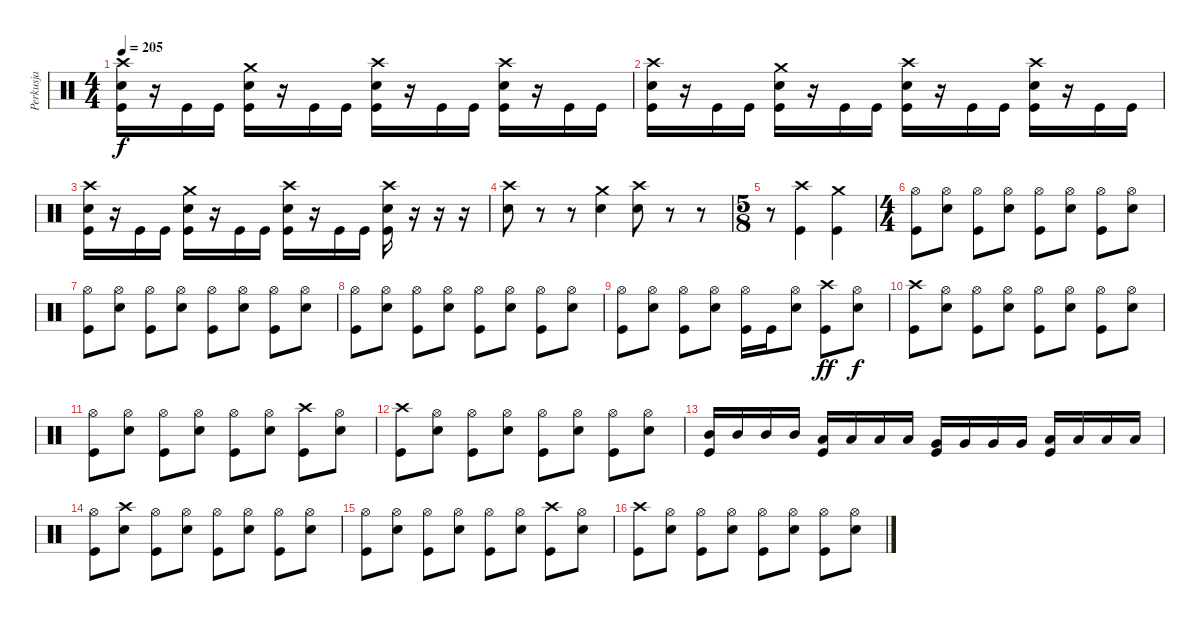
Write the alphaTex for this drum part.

\track ("Perkusja" "Perkusja") {instrument percussion}
\staff {score}
\articulation defaults
\ts (4 4)
\tempo 205
\clef neutral
\ks c
("Crash high (hit)" "Snare (hit) 2" "Kick (hit)").16{dy f} r.16 "Kick (hit)".16 "Kick (hit)".16 ("Crash medium (hit)" "Snare (hit) 2" "Kick (hit)").16 r.16 "Kick (hit)".16 "Kick (hit)".16 ("Crash high (hit)" "Snare (hit) 2" "Kick (hit)").16 r.16 "Kick (hit)".16 "Kick (hit)".16 ("Crash high (hit)" "Snare (hit) 2" "Kick (hit)").16 r.16 "Kick (hit)".16 "Kick (hit)".16 |
("Crash high (hit)" "Snare (hit) 2" "Kick (hit)").16 r.16 "Kick (hit)".16 "Kick (hit)".16 ("Crash medium (hit)" "Snare (hit) 2" "Kick (hit)").16 r.16 "Kick (hit)".16 "Kick (hit)".16 ("Crash high (hit)" "Snare (hit) 2" "Kick (hit)").16 r.16 "Kick (hit)".16 "Kick (hit)".16 ("Crash high (hit)" "Snare (hit) 2" "Kick (hit)").16 r.16 "Kick (hit)".16 "Kick (hit)".16 |
("Crash high (hit)" "Snare (hit) 2" "Kick (hit)").16 r.16 "Kick (hit)".16 "Kick (hit)".16 ("Crash medium (hit)" "Snare (hit) 2" "Kick (hit)").16 r.16 "Kick (hit)".16 "Kick (hit)".16 ("Crash high (hit)" "Snare (hit) 2" "Kick (hit)").16 r.16 "Kick (hit)".16 "Kick (hit)".16 ("Crash high (hit)" "Snare (hit) 2" "Kick (hit)").16 r.16 r.16 r.16 |
("Crash high (hit)" "Snare (hit) 2").8 r.8 r.8 ("Crash medium (hit)" "Snare (hit) 2").4 ("Crash high (hit)" "Snare (hit) 2").8 r.8 r.8 |
\ts (5 8)
r.8 ("Crash high (hit)" "Kick (hit)").4 ("Crash medium (hit)" "Kick (hit)").4 |
\ts (4 4)
("Hi-Hat (open)" "Kick (hit)").8 ("Hi-Hat (open)" "Snare (hit) 2").8 ("Hi-Hat (open)" "Kick (hit)").8 ("Hi-Hat (open)" "Snare (hit) 2").8 ("Hi-Hat (open)" "Kick (hit)").8 ("Hi-Hat (open)" "Snare (hit) 2").8 ("Hi-Hat (open)" "Kick (hit)").8 ("Hi-Hat (open)" "Snare (hit) 2").8 |
("Hi-Hat (open)" "Kick (hit)").8 ("Hi-Hat (open)" "Snare (hit) 2").8 ("Hi-Hat (open)" "Kick (hit)").8 ("Hi-Hat (open)" "Snare (hit) 2").8 ("Hi-Hat (open)" "Kick (hit)").8 ("Hi-Hat (open)" "Snare (hit) 2").8 ("Hi-Hat (open)" "Kick (hit)").8 ("Hi-Hat (open)" "Snare (hit) 2").8 |
("Hi-Hat (open)" "Kick (hit)").8 ("Hi-Hat (open)" "Snare (hit) 2").8 ("Hi-Hat (open)" "Kick (hit)").8 ("Hi-Hat (open)" "Snare (hit) 2").8 ("Hi-Hat (open)" "Kick (hit)").8 ("Hi-Hat (open)" "Snare (hit) 2").8 ("Hi-Hat (open)" "Kick (hit)").8 ("Hi-Hat (open)" "Snare (hit) 2").8 |
("Hi-Hat (open)" "Kick (hit)").8 ("Hi-Hat (open)" "Snare (hit) 2").8 ("Hi-Hat (open)" "Kick (hit)").8 ("Hi-Hat (open)" "Snare (hit) 2").8 ("Hi-Hat (open)" "Kick (hit)").16 "Kick (hit)".16 ("Hi-Hat (open)" "Snare (hit) 2").8 ("Crash high (hit)" "Kick (hit)").8{dy ff} ("Hi-Hat (open)" "Snare (hit) 2").8{dy f} |
("Crash high (hit)" "Kick (hit)").8 ("Hi-Hat (open)" "Snare (hit) 2").8 ("Hi-Hat (open)" "Kick (hit)").8 ("Hi-Hat (open)" "Snare (hit) 2").8 ("Hi-Hat (open)" "Kick (hit)").8 ("Hi-Hat (open)" "Snare (hit) 2").8 ("Hi-Hat (open)" "Kick (hit)").8 ("Hi-Hat (open)" "Snare (hit) 2").8 |
("Hi-Hat (open)" "Kick (hit)").8 ("Hi-Hat (open)" "Snare (hit) 2").8 ("Hi-Hat (open)" "Kick (hit)").8 ("Hi-Hat (open)" "Snare (hit) 2").8 ("Hi-Hat (open)" "Kick (hit)").8 ("Hi-Hat (open)" "Snare (hit) 2").8 ("Crash high (hit)" "Kick (hit)").8 ("Hi-Hat (open)" "Snare (hit) 2").8 |
("Crash high (hit)" "Kick (hit)").8 ("Hi-Hat (open)" "Snare (hit) 2").8 ("Hi-Hat (open)" "Kick (hit)").8 ("Hi-Hat (open)" "Snare (hit) 2").8 ("Hi-Hat (open)" "Kick (hit)").8 ("Hi-Hat (open)" "Snare (hit) 2").8 ("Hi-Hat (open)" "Kick (hit)").8 ("Hi-Hat (open)" "Snare (hit) 2").8 |
("Mid Tom (hit)" "Kick (hit)").16 "Mid Tom (hit)".16 "Mid Tom (hit)".16 "Mid Tom (hit)".16 ("Low Tom (hit)" "Kick (hit)").16 "Low Tom (hit)".16 "Low Tom (hit)".16 "Low Tom (hit)".16 ("Very Low Tom (hit)" "Kick (hit)").16 "Very Low Tom (hit)".16 "Very Low Tom (hit)".16 "Very Low Tom (hit)".16 ("Low Floor Tom (hit)" "Kick (hit)").16 "Low Floor Tom (hit)".16 "Low Floor Tom (hit)".16 "Low Floor Tom (hit)".16 |
("Hi-Hat (open)" "Kick (hit)").8 ("Crash high (hit)" "Snare (hit) 2").8 ("Hi-Hat (open)" "Kick (hit)").8 ("Hi-Hat (open)" "Snare (hit) 2").8 ("Hi-Hat (open)" "Kick (hit)").8 ("Hi-Hat (open)" "Snare (hit) 2").8 ("Hi-Hat (open)" "Kick (hit)").8 ("Hi-Hat (open)" "Snare (hit) 2").8 |
("Hi-Hat (open)" "Kick (hit)").8 ("Hi-Hat (open)" "Snare (hit) 2").8 ("Hi-Hat (open)" "Kick (hit)").8 ("Hi-Hat (open)" "Snare (hit) 2").8 ("Hi-Hat (open)" "Kick (hit)").8 ("Hi-Hat (open)" "Snare (hit) 2").8 ("Crash high (hit)" "Kick (hit)").8 ("Hi-Hat (open)" "Snare (hit) 2").8 |
("Crash high (hit)" "Kick (hit)").8 ("Hi-Hat (open)" "Snare (hit) 2").8 ("Hi-Hat (open)" "Kick (hit)").8 ("Hi-Hat (open)" "Snare (hit) 2").8 ("Hi-Hat (open)" "Kick (hit)").8 ("Hi-Hat (open)" "Snare (hit) 2").8 ("Hi-Hat (open)" "Kick (hit)").8 ("Hi-Hat (open)" "Snare (hit) 2").8
